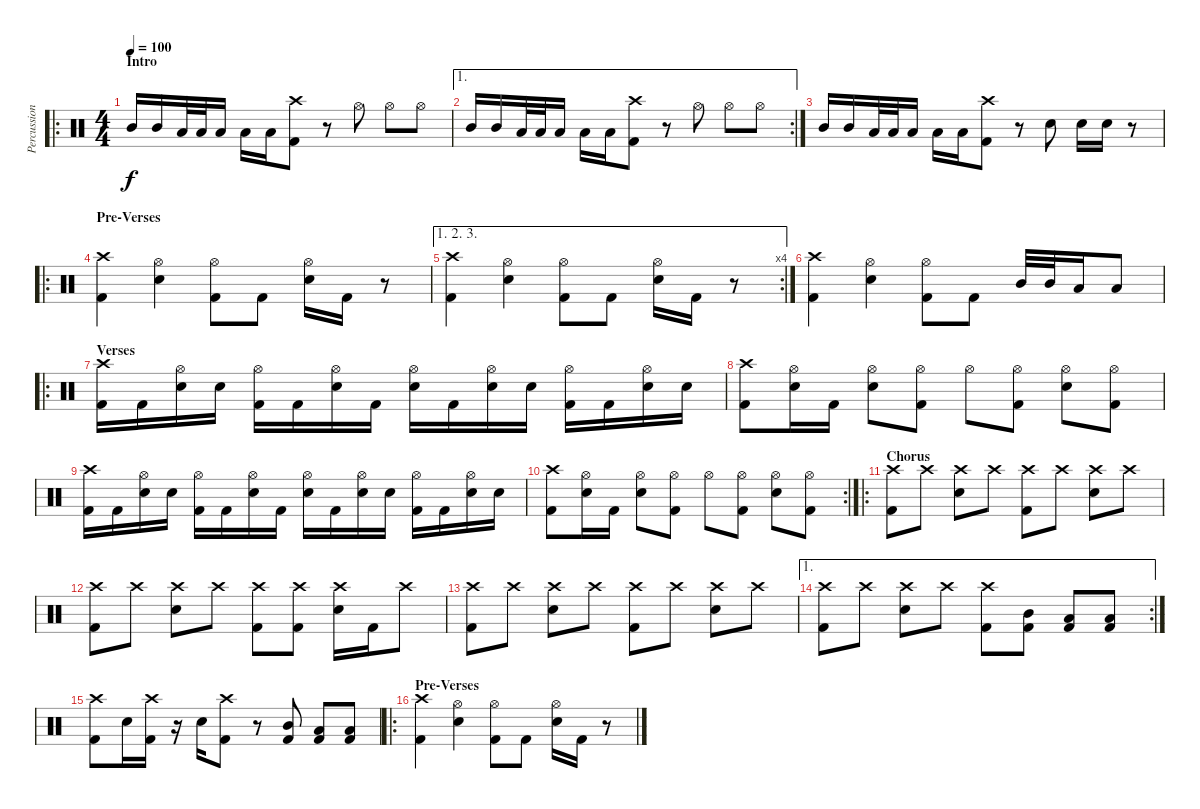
\track ("Percussions" "Percussion") {instrument percussion}
\staff {score}
\articulation defaults
\ro
\ts (4 4)
\section ("" "Intro")
\tempo 100
\clef neutral
\ks c "Mid Tom (hit)".16{dy f} "Mid Tom (hit)".16 "Low Tom (hit)".32 "Low Tom (hit)".32 "Low Tom (hit)".16 "Low Tom (hit)".16 "Low Tom (hit)".16
("Crash high (hit)" "Kick (hit) 2").8 r.8 "Hi-Hat (open)".8 "Hi-Hat (open)".8 "Hi-Hat (open)".8 |
\ae 1
\rc 2 "Mid Tom (hit)".16 "Mid Tom (hit)".16 "Low Tom (hit)".32 "Low Tom (hit)".32 "Low Tom (hit)".16 "Low Tom (hit)".16 "Low Tom (hit)".16
("Crash high (hit)" "Kick (hit) 2").8 r.8 "Hi-Hat (open)".8 "Hi-Hat (open)".8 "Hi-Hat (open)".8 |
"Mid Tom (hit)".16 "Mid Tom (hit)".16 "Low Tom (hit)".32 "Low Tom (hit)".32 "Low Tom (hit)".16 "Low Tom (hit)".16 "Low Tom (hit)".16 ("Crash high (hit)" "Kick (hit) 2").8 r.8 "Snare (hit) 2".8 "Snare (hit) 2".16 "Snare (hit) 2".16 r.8 |
\ro
\section ("" "Pre-Verses")
("Crash high (hit)" "Kick (hit) 2").4 ("Hi-Hat (open)" "Snare (hit) 2").4 ("Hi-Hat (open)" "Kick (hit) 2").8 "Kick (hit) 2".8 ("Hi-Hat (open)" "Snare (hit) 2").16 "Kick (hit) 2".16 r.8 |
\ae (1 2 3)
\rc 4
("Crash high (hit)" "Kick (hit) 2").4 ("Hi-Hat (open)" "Snare (hit) 2").4 ("Hi-Hat (open)" "Kick (hit) 2").8 "Kick (hit) 2".8 ("Hi-Hat (open)" "Snare (hit) 2").16 "Kick (hit) 2".16 r.8 |
("Crash high (hit)" "Kick (hit) 2").4 ("Hi-Hat (open)" "Snare (hit) 2").4 ("Hi-Hat (open)" "Kick (hit) 2").8 "Kick (hit) 2".8 "Mid Tom (hit)".32 "Mid Tom (hit)".32 "Low Tom (hit)".16 "Low Tom (hit)".8 |
\ro
\section ("" "Verses")
("Crash high (hit)" "Kick (hit) 2").16 "Kick (hit) 2".16 ("Hi-Hat (open)" "Snare (hit) 2").16 "Snare (hit)".16 ("Hi-Hat (open)" "Kick (hit) 2").16 "Kick (hit) 2".16 ("Hi-Hat (open)" "Snare (hit) 2").16 "Kick (hit) 2".16 ("Hi-Hat (open)" "Snare (hit)").16 "Kick (hit) 2".16 ("Hi-Hat (open)" "Snare (hit) 2").16 "Snare (hit)".16 ("Hi-Hat (open)" "Kick (hit) 2").16 "Kick (hit) 2".16 ("Hi-Hat (open)" "Snare (hit) 2").16 "Snare (hit)".16 |
("Crash high (hit)" "Kick (hit) 2").8 ("Hi-Hat (open)" "Snare (hit)").16 "Kick (hit) 2".16 ("Hi-Hat (open)" "Snare (hit) 2").8 ("Hi-Hat (open)" "Kick (hit) 2").8 "Hi-Hat (open)".8 ("Hi-Hat (open)" "Kick (hit) 2").8 ("Hi-Hat (open)" "Snare (hit) 2").8 ("Hi-Hat (open)" "Kick (hit) 2").8 |
("Crash high (hit)" "Kick (hit) 2").16 "Kick (hit) 2".16 ("Hi-Hat (open)" "Snare (hit) 2").16 "Snare (hit)".16 ("Hi-Hat (open)" "Kick (hit) 2").16 "Kick (hit) 2".16 ("Hi-Hat (open)" "Snare (hit) 2").16 "Kick (hit) 2".16 ("Hi-Hat (open)" "Snare (hit)").16 "Kick (hit) 2".16 ("Hi-Hat (open)" "Snare (hit) 2").16 "Snare (hit)".16 ("Hi-Hat (open)" "Kick (hit) 2").16 "Kick (hit) 2".16 ("Hi-Hat (open)" "Snare (hit) 2").16 "Snare (hit)".16 |
\rc 2
("Crash high (hit)" "Kick (hit) 2").8 ("Hi-Hat (open)" "Snare (hit)").16 "Kick (hit) 2".16 ("Hi-Hat (open)" "Snare (hit) 2").8 ("Hi-Hat (open)" "Kick (hit) 2").8 "Hi-Hat (open)".8 ("Hi-Hat (open)" "Kick (hit) 2").8 ("Hi-Hat (open)" "Snare (hit) 2").8 ("Hi-Hat (open)" "Kick (hit) 2").8 |
\ro
\section ("" "Chorus")
("Crash high (hit)" "Kick (hit) 2").8 "Crash high (hit)".8 ("Crash high (hit)" "Snare (hit) 2").8 "Crash high (hit)".8 ("Crash high (hit)" "Kick (hit) 2").8 "Crash high (hit)".8 ("Crash high (hit)" "Snare (hit) 2").8 "Crash high (hit)".8 |
("Crash high (hit)" "Kick (hit) 2").8 "Crash high (hit)".8 ("Crash high (hit)" "Snare (hit) 2").8 "Crash high (hit)".8 ("Crash high (hit)" "Kick (hit) 2").8 ("Crash high (hit)" "Kick (hit) 2").8 ("Crash high (hit)" "Snare (hit) 2").16 "Kick (hit) 2".16 "Crash high (hit)".8 |
("Crash high (hit)" "Kick (hit) 2").8 "Crash high (hit)".8 ("Crash high (hit)" "Snare (hit) 2").8 "Crash high (hit)".8 ("Crash high (hit)" "Kick (hit) 2").8 "Crash high (hit)".8 ("Crash high (hit)" "Snare (hit) 2").8 "Crash high (hit)".8 |
\ae 1
\rc 2
("Crash high (hit)" "Kick (hit) 2").8 "Crash high (hit)".8 ("Crash high (hit)" "Snare (hit) 2").8 "Crash high (hit)".8 ("Crash high (hit)" "Kick (hit) 2").8 ("Mid Tom (hit)" "Kick (hit) 2").8 ("Low Tom (hit)" "Kick (hit) 2").8 ("Low Tom (hit)" "Kick (hit) 2").8 |
("Crash high (hit)" "Kick (hit) 2").8 "Snare (hit) 2".16 ("Crash high (hit)" "Kick (hit) 2").16 r.16 "Snare (hit) 2".16 ("Crash high (hit)" "Kick (hit) 2").8 r.8 ("Mid Tom (hit)" "Kick (hit) 2").8 ("Low Tom (hit)" "Kick (hit) 2").8 ("Low Tom (hit)" "Kick (hit) 2").8 |
\ro
\section ("" "Pre-Verses")
("Crash high (hit)" "Kick (hit) 2").4 ("Hi-Hat (open)" "Snare (hit) 2").4 ("Hi-Hat (open)" "Kick (hit) 2").8 "Kick (hit) 2".8 ("Hi-Hat (open)" "Snare (hit) 2").16 "Kick (hit) 2".16 r.8
